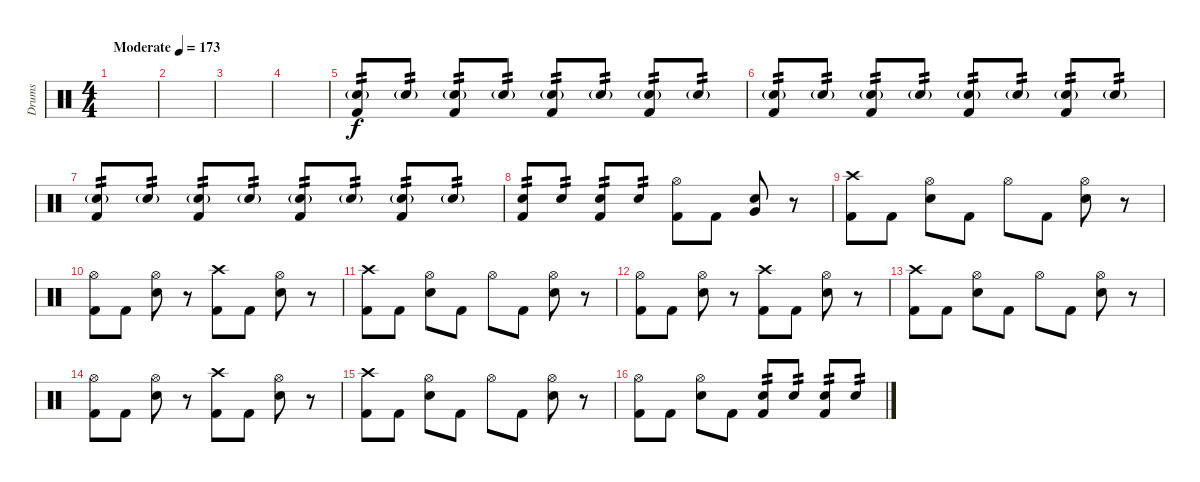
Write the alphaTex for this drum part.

\track ("Drums" "Drums") {instrument percussion}
\staff {score}
\articulation defaults
\ts (4 4)
\tempo (173 "Moderate")
\clef neutral
\ks c
|
|
|
|
("Electric Snare (hit)"{g} "Kick (hit) 2").8{tp 2} "Electric Snare (hit)"{g}.8{tp 2} ("Electric Snare (hit)"{g} "Kick (hit) 2").8{tp 2} "Electric Snare (hit)"{g}.8{tp 2} ("Electric Snare (hit)"{g} "Kick (hit) 2").8{tp 2} "Electric Snare (hit)"{g}.8{tp 2} ("Electric Snare (hit)"{g} "Kick (hit) 2").8{tp 2} "Electric Snare (hit)"{g}.8{tp 2} |
("Electric Snare (hit)"{g} "Kick (hit) 2").8{tp 2} "Electric Snare (hit)"{g}.8{tp 2} ("Electric Snare (hit)"{g} "Kick (hit) 2").8{tp 2} "Electric Snare (hit)"{g}.8{tp 2} ("Electric Snare (hit)"{g} "Kick (hit) 2").8{tp 2} "Electric Snare (hit)"{g}.8{tp 2} ("Electric Snare (hit)"{g} "Kick (hit) 2").8{tp 2} "Electric Snare (hit)"{g}.8{tp 2} |
("Electric Snare (hit)"{g} "Kick (hit) 2").8{tp 2} "Electric Snare (hit)"{g}.8{tp 2} ("Electric Snare (hit)"{g} "Kick (hit) 2").8{tp 2} "Electric Snare (hit)"{g}.8{tp 2} ("Electric Snare (hit)"{g} "Kick (hit) 2").8{tp 2} "Electric Snare (hit)"{g}.8{tp 2} ("Electric Snare (hit)"{g} "Kick (hit) 2").8{tp 2} "Electric Snare (hit)"{g}.8{tp 2} |
("Electric Snare (hit)" "Kick (hit) 2").8{tp 2 dy f} "Electric Snare (hit)".8{tp 2} ("Electric Snare (hit)" "Kick (hit) 2").8{tp 2} "Electric Snare (hit)".8{tp 2} ("Hi-Hat (open)" "Kick (hit) 2").8 "Kick (hit) 2".8 ("Very Low Tom (hit)" "Electric Snare (hit)").8 r.8 |
("Crash high (hit)" "Kick (hit) 2").8 "Kick (hit) 2".8 ("Hi-Hat (open)" "Electric Snare (hit)").8 "Kick (hit) 2".8 "Hi-Hat (open)".8 "Kick (hit) 2".8 ("Hi-Hat (open)" "Electric Snare (hit)").8 r.8 |
("Hi-Hat (open)" "Kick (hit) 2").8 "Kick (hit) 2".8 ("Hi-Hat (open)" "Electric Snare (hit)").8 r.8 ("Crash high (hit)" "Kick (hit) 2").8 "Kick (hit) 2".8 ("Hi-Hat (open)" "Electric Snare (hit)").8 r.8 |
("Crash high (hit)" "Kick (hit) 2").8 "Kick (hit) 2".8 ("Hi-Hat (open)" "Electric Snare (hit)").8 "Kick (hit) 2".8 "Hi-Hat (open)".8 "Kick (hit) 2".8 ("Hi-Hat (open)" "Electric Snare (hit)").8 r.8 |
("Hi-Hat (open)" "Kick (hit) 2").8 "Kick (hit) 2".8 ("Hi-Hat (open)" "Electric Snare (hit)").8 r.8 ("Crash high (hit)" "Kick (hit) 2").8 "Kick (hit) 2".8 ("Hi-Hat (open)" "Electric Snare (hit)").8 r.8 |
("Crash high (hit)" "Kick (hit) 2").8 "Kick (hit) 2".8 ("Hi-Hat (open)" "Electric Snare (hit)").8 "Kick (hit) 2".8 "Hi-Hat (open)".8 "Kick (hit) 2".8 ("Hi-Hat (open)" "Electric Snare (hit)").8 r.8 |
("Hi-Hat (open)" "Kick (hit) 2").8 "Kick (hit) 2".8 ("Hi-Hat (open)" "Electric Snare (hit)").8 r.8 ("Crash high (hit)" "Kick (hit) 2").8 "Kick (hit) 2".8 ("Hi-Hat (open)" "Electric Snare (hit)").8 r.8 |
("Crash high (hit)" "Kick (hit) 2").8 "Kick (hit) 2".8 ("Hi-Hat (open)" "Electric Snare (hit)").8 "Kick (hit) 2".8 "Hi-Hat (open)".8 "Kick (hit) 2".8 ("Hi-Hat (open)" "Electric Snare (hit)").8 r.8 |
("Hi-Hat (open)" "Kick (hit) 2").8 "Kick (hit) 2".8 ("Hi-Hat (open)" "Electric Snare (hit)").8 "Kick (hit) 2".8 ("Electric Snare (hit)" "Kick (hit) 2").8{tp 2} "Electric Snare (hit)".8{tp 2} ("Electric Snare (hit)" "Kick (hit) 2").8{tp 2} "Electric Snare (hit)".8{tp 2}
